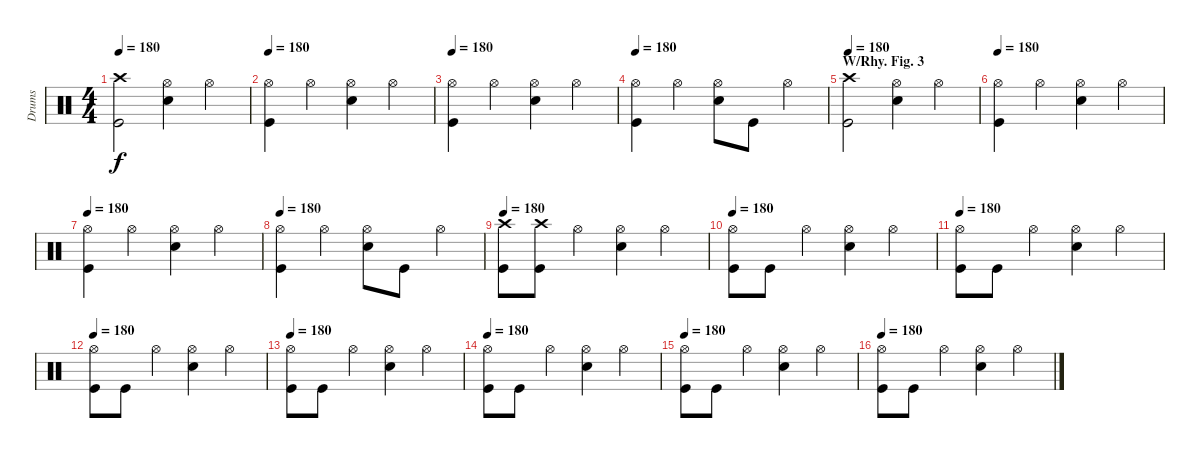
\track ("Drums" "Drums") {instrument percussion}
\staff {score}
\articulation defaults
\ts (4 4)
\tempo 180
\clef neutral
\ks c
("Crash high (hit)" "Kick (hit)").2{dy f} ("Hi-Hat (open)" "Snare (hit) 2").4 "Hi-Hat (open)".4 |
\tempo 180
("Hi-Hat (open)" "Kick (hit)").4 "Hi-Hat (open)".4 ("Hi-Hat (open)" "Snare (hit) 2").4 "Hi-Hat (open)".4 |
\tempo 180
("Hi-Hat (open)" "Kick (hit)").4 "Hi-Hat (open)".4 ("Hi-Hat (open)" "Snare (hit) 2").4 "Hi-Hat (open)".4 |
\tempo 180
("Hi-Hat (open)" "Kick (hit)").4 "Hi-Hat (open)".4 ("Hi-Hat (open)" "Snare (hit) 2").8 "Kick (hit)".8 "Hi-Hat (open)".4 |
\section ("" "W/Rhy. Fig. 3")
\tempo 180
("Crash high (hit)" "Kick (hit)").2 ("Hi-Hat (open)" "Snare (hit) 2").4 "Hi-Hat (open)".4 |
\tempo 180
("Hi-Hat (open)" "Kick (hit)").4 "Hi-Hat (open)".4 ("Hi-Hat (open)" "Snare (hit) 2").4 "Hi-Hat (open)".4 |
\tempo 180
("Hi-Hat (open)" "Kick (hit)").4 "Hi-Hat (open)".4 ("Hi-Hat (open)" "Snare (hit) 2").4 "Hi-Hat (open)".4 |
\tempo 180
("Hi-Hat (open)" "Kick (hit)").4 "Hi-Hat (open)".4 ("Hi-Hat (open)" "Snare (hit) 2").8 "Kick (hit)".8 "Hi-Hat (open)".4 |
\tempo 180
("Crash high (hit)" "Kick (hit)").8 ("Crash high (hit)" "Kick (hit)").8 "Hi-Hat (open)".4 ("Hi-Hat (open)" "Snare (hit) 2").4 "Hi-Hat (open)".4 |
\tempo 180
("Hi-Hat (open)" "Kick (hit)").8 "Kick (hit)".8 "Hi-Hat (open)".4 ("Hi-Hat (open)" "Snare (hit) 2").4 "Hi-Hat (open)".4 |
\tempo 180
("Hi-Hat (open)" "Kick (hit)").8 "Kick (hit)".8 "Hi-Hat (open)".4 ("Hi-Hat (open)" "Snare (hit) 2").4 "Hi-Hat (open)".4 |
\tempo 180
("Hi-Hat (open)" "Kick (hit)").8 "Kick (hit)".8 "Hi-Hat (open)".4 ("Hi-Hat (open)" "Snare (hit) 2").4 "Hi-Hat (open)".4 |
\tempo 180
("Hi-Hat (open)" "Kick (hit)").8 "Kick (hit)".8 "Hi-Hat (open)".4 ("Hi-Hat (open)" "Snare (hit) 2").4 "Hi-Hat (open)".4 |
\tempo 180
("Hi-Hat (open)" "Kick (hit)").8 "Kick (hit)".8 "Hi-Hat (open)".4 ("Hi-Hat (open)" "Snare (hit) 2").4 "Hi-Hat (open)".4 |
\tempo 180
("Hi-Hat (open)" "Kick (hit)").8 "Kick (hit)".8 "Hi-Hat (open)".4 ("Hi-Hat (open)" "Snare (hit) 2").4 "Hi-Hat (open)".4 |
\tempo 180
("Hi-Hat (open)" "Kick (hit)").8 "Kick (hit)".8 "Hi-Hat (open)".4 ("Hi-Hat (open)" "Snare (hit) 2").4 "Hi-Hat (open)".4
